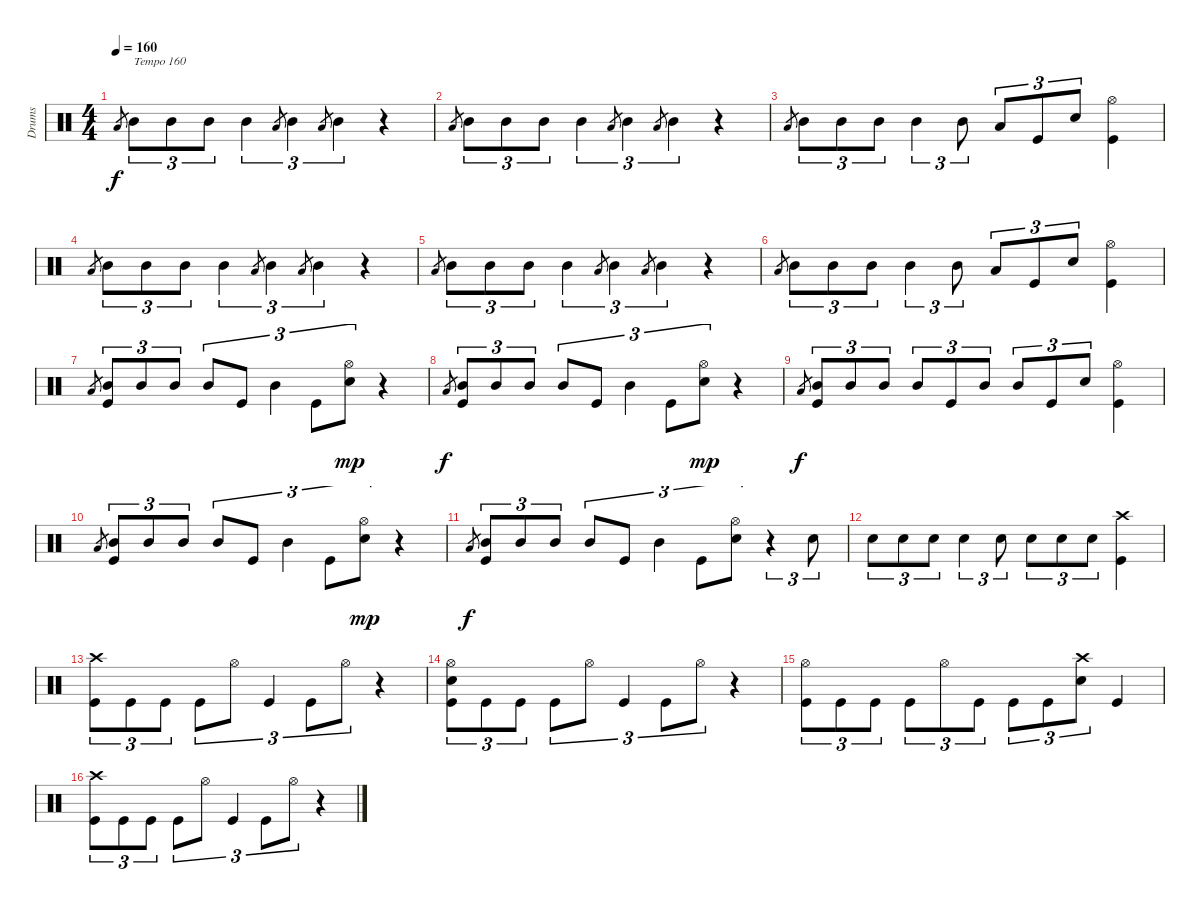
\track ("Drums" "Drums") {instrument percussion}
\staff {score}
\articulation defaults
\ts (4 4)
\tempo 160
\clef neutral
\ks c "Low Tom (hit)".8{gr dy f} "Mid Tom (hit)".8{tu (3 2) txt "Tempo 160"} "Mid Tom (hit)".8{tu (3 2)} "Mid Tom (hit)".8{tu (3 2)} "Mid Tom (hit)".4{tu (3 2)} "Low Tom (hit)".8{gr} "Mid Tom (hit)".4{tu (3 2)} "Low Tom (hit)".8{gr} "Mid Tom (hit)".4{tu (3 2)}
r.4 |
"Low Tom (hit)".8{gr} "Mid Tom (hit)".8{tu (3 2)} "Mid Tom (hit)".8{tu (3 2)} "Mid Tom (hit)".8{tu (3 2)} "Mid Tom (hit)".4{tu (3 2)} "Low Tom (hit)".8{gr} "Mid Tom (hit)".4{tu (3 2)} "Low Tom (hit)".8{gr} "Mid Tom (hit)".4{tu (3 2)} r.4 |
"Low Tom (hit)".8{gr} "Mid Tom (hit)".8{tu (3 2)} "Mid Tom (hit)".8{tu (3 2)} "Mid Tom (hit)".8{tu (3 2)} "Mid Tom (hit)".4{tu (3 2)} "Mid Tom (hit)".8{tu (3 2)} "Low Tom (hit)".8{tu (3 2)} "Kick (hit)".8{tu (3 2)} "Electric Snare (hit)".8{tu (3 2)} ("Hi-Hat (open)" "Kick (hit)").4 |
"Low Tom (hit)".8{gr} "Mid Tom (hit)".8{tu (3 2)} "Mid Tom (hit)".8{tu (3 2)} "Mid Tom (hit)".8{tu (3 2)} "Mid Tom (hit)".4{tu (3 2)} "Low Tom (hit)".8{gr} "Mid Tom (hit)".4{tu (3 2)} "Low Tom (hit)".8{gr} "Mid Tom (hit)".4{tu (3 2)} r.4 |
"Low Tom (hit)".8{gr} "Mid Tom (hit)".8{tu (3 2)} "Mid Tom (hit)".8{tu (3 2)} "Mid Tom (hit)".8{tu (3 2)} "Mid Tom (hit)".4{tu (3 2)} "Low Tom (hit)".8{gr} "Mid Tom (hit)".4{tu (3 2)} "Low Tom (hit)".8{gr} "Mid Tom (hit)".4{tu (3 2)} r.4 |
"Low Tom (hit)".8{gr} "Mid Tom (hit)".8{tu (3 2)} "Mid Tom (hit)".8{tu (3 2)} "Mid Tom (hit)".8{tu (3 2)} "Mid Tom (hit)".4{tu (3 2)} "Mid Tom (hit)".8{tu (3 2)} "Low Tom (hit)".8{tu (3 2)} "Kick (hit)".8{tu (3 2)} "Electric Snare (hit)".8{tu (3 2)} ("Hi-Hat (open)" "Kick (hit)").4 |
"Low Tom (hit)".8{gr} ("Kick (hit)" "Mid Tom (hit)").8{tu (3 2)} "Mid Tom (hit)".8{tu (3 2)} "Mid Tom (hit)".8{tu (3 2)} "Mid Tom (hit)".8{tu (3 2)} "Kick (hit)".8{tu (3 2)} "Mid Tom (hit)".4{tu (3 2)} "Kick (hit)".8{tu (3 2)} ("Hi-Hat (open)" "Electric Snare (hit)").8{tu (3 2) dy mp} r.4 |
"Low Tom (hit)".8{gr dy f} ("Kick (hit)" "Mid Tom (hit)").8{tu (3 2)} "Mid Tom (hit)".8{tu (3 2)} "Mid Tom (hit)".8{tu (3 2)} "Mid Tom (hit)".8{tu (3 2)} "Kick (hit)".8{tu (3 2)} "Mid Tom (hit)".4{tu (3 2)} "Kick (hit)".8{tu (3 2)} ("Hi-Hat (open)" "Electric Snare (hit)").8{tu (3 2) dy mp} r.4 |
"Low Tom (hit)".8{gr dy f} ("Kick (hit)" "Mid Tom (hit)").8{tu (3 2)} "Mid Tom (hit)".8{tu (3 2)} "Mid Tom (hit)".8{tu (3 2)} "Mid Tom (hit)".8{tu (3 2)} "Kick (hit)".8{tu (3 2)} "Mid Tom (hit)".8{tu (3 2)} "Mid Tom (hit)".8{tu (3 2)} "Kick (hit)".8{tu (3 2)} "Electric Snare (hit)".8{tu (3 2)} ("Hi-Hat (open)" "Kick (hit)").4 |
"Low Tom (hit)".8{gr} ("Kick (hit)" "Mid Tom (hit)").8{tu (3 2)} "Mid Tom (hit)".8{tu (3 2)} "Mid Tom (hit)".8{tu (3 2)} "Mid Tom (hit)".8{tu (3 2)} "Kick (hit)".8{tu (3 2)} "Mid Tom (hit)".4{tu (3 2)} "Kick (hit)".8{tu (3 2)} ("Hi-Hat (open)" "Electric Snare (hit)").8{tu (3 2) dy mp} r.4 |
"Low Tom (hit)".8{gr dy f} ("Kick (hit)" "Mid Tom (hit)").8{tu (3 2)} "Mid Tom (hit)".8{tu (3 2)} "Mid Tom (hit)".8{tu (3 2)} "Mid Tom (hit)".8{tu (3 2)} "Kick (hit)".8{tu (3 2)} "Mid Tom (hit)".4{tu (3 2)} "Kick (hit)".8{tu (3 2)} ("Hi-Hat (open)" "Electric Snare (hit)").8{tu (3 2)} r.4{tu (3 2)} "Electric Snare (hit)".8{tu (3 2)} |
"Electric Snare (hit)".8{tu (3 2)} "Electric Snare (hit)".8{tu (3 2)} "Electric Snare (hit)".8{tu (3 2)} "Electric Snare (hit)".4{tu (3 2)} "Electric Snare (hit)".8{tu (3 2)} "Electric Snare (hit)".8{tu (3 2)} "Electric Snare (hit)".8{tu (3 2)} "Electric Snare (hit)".8{tu (3 2)} ("Crash high (hit)" "Kick (hit)").4 |
("Crash high (hit)" "Kick (hit)").8{tu (3 2)} "Kick (hit)".8{tu (3 2)} "Kick (hit)".8{tu (3 2)} "Kick (hit)".8{tu (3 2)} "Hi-Hat (open)".8{tu (3 2)} "Kick (hit)".4{tu (3 2)} "Kick (hit)".8{tu (3 2)} "Hi-Hat (open)".8{tu (3 2)} r.4 |
("Electric Snare (hit)" "Hi-Hat (open)" "Kick (hit)").8{tu (3 2)} "Kick (hit)".8{tu (3 2)} "Kick (hit)".8{tu (3 2)} "Kick (hit)".8{tu (3 2)} "Hi-Hat (open)".8{tu (3 2)} "Kick (hit)".4{tu (3 2)} "Kick (hit)".8{tu (3 2)} "Hi-Hat (open)".8{tu (3 2)} r.4 |
("Hi-Hat (open)" "Kick (hit)").8{tu (3 2)} "Kick (hit)".8{tu (3 2)} "Kick (hit)".8{tu (3 2)} "Kick (hit)".8{tu (3 2)} "Hi-Hat (open)".8{tu (3 2)} "Kick (hit)".8{tu (3 2)} "Kick (hit)".8{tu (3 2)} "Kick (hit)".8{tu (3 2)} ("Electric Snare (hit)" "Crash high (hit)").8{tu (3 2)} "Kick (hit)".4 |
("Crash high (hit)" "Kick (hit)").8{tu (3 2)} "Kick (hit)".8{tu (3 2)} "Kick (hit)".8{tu (3 2)} "Kick (hit)".8{tu (3 2)} "Hi-Hat (open)".8{tu (3 2)} "Kick (hit)".4{tu (3 2)} "Kick (hit)".8{tu (3 2)} "Hi-Hat (open)".8{tu (3 2)} r.4
